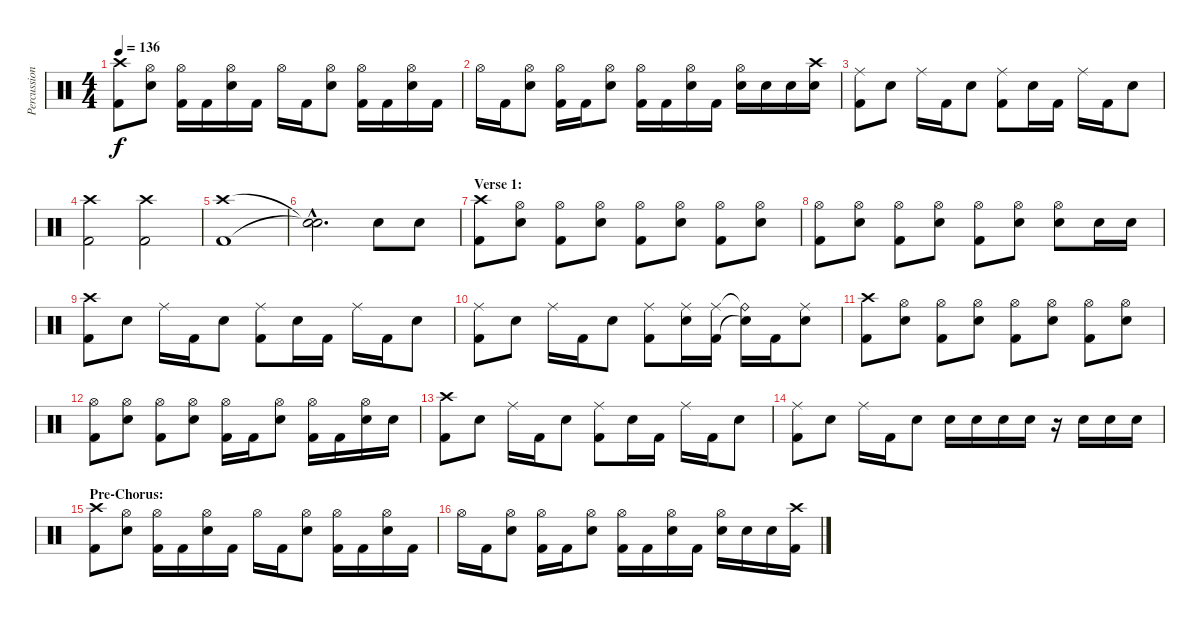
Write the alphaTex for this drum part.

\track ("Percussion" "Percussion") {instrument percussion}
\staff {score}
\articulation defaults
\ts (4 4)
\tempo 136
\clef neutral
\ks c
("Crash high (hit)" "Kick (hit) 2").8{dy f} ("Hi-Hat (open)" "Electric Snare (hit)").8 ("Hi-Hat (open)" "Kick (hit) 2").16 "Kick (hit) 2".16 ("Hi-Hat (open)" "Electric Snare (hit)").16 "Kick (hit) 2".16 "Hi-Hat (open)".16 "Kick (hit) 2".16 ("Hi-Hat (open)" "Electric Snare (hit)").8 ("Hi-Hat (open)" "Kick (hit) 2").16 "Kick (hit) 2".16 ("Hi-Hat (open)" "Electric Snare (hit)").16 "Kick (hit) 2".16 |
"Hi-Hat (open)".16 "Kick (hit) 2".16 ("Hi-Hat (open)" "Electric Snare (hit)").8 ("Hi-Hat (open)" "Kick (hit) 2").16 "Kick (hit) 2".16 ("Hi-Hat (open)" "Electric Snare (hit)").8 ("Hi-Hat (open)" "Kick (hit) 2").16 "Kick (hit) 2".16 ("Hi-Hat (open)" "Electric Snare (hit)").16 "Kick (hit) 2".16 ("Hi-Hat (open)" "Electric Snare (hit)").16 "Electric Snare (hit)".16 "Electric Snare (hit)".16 ("Crash high (hit)" "Electric Snare (hit)").16 |
("Ride (middle)" "Kick (hit) 2").8 "Electric Snare (hit)".8 "Ride (middle)".16 "Kick (hit) 2".16 "Electric Snare (hit)".8 ("Ride (middle)" "Kick (hit) 2").8 "Electric Snare (hit)".16 "Kick (hit) 2".16 "Ride (middle)".16 "Kick (hit) 2".16 "Electric Snare (hit)".8 |
("Crash high (hit)" "Kick (hit) 2").2 ("Crash high (hit)" "Kick (hit) 2").2 |
("Crash high (hit)" "Kick (hit) 2").1 |
("Snare (hit)"{hac t} "Snare (hit)"{hac t}).2{d} "Electric Snare (hit)".8 "Electric Snare (hit)".8 |
\section ("" "Verse 1:")
("Crash high (hit)" "Kick (hit) 2").8 ("Hi-Hat (open)" "Electric Snare (hit)").8 ("Hi-Hat (open)" "Kick (hit) 2").8 ("Hi-Hat (open)" "Electric Snare (hit)").8 ("Hi-Hat (open)" "Kick (hit) 2").8 ("Hi-Hat (open)" "Electric Snare (hit)").8 ("Hi-Hat (open)" "Kick (hit) 2").8 ("Hi-Hat (open)" "Electric Snare (hit)").8 |
("Hi-Hat (open)" "Kick (hit) 2").8 ("Hi-Hat (open)" "Electric Snare (hit)").8 ("Hi-Hat (open)" "Kick (hit) 2").8 ("Hi-Hat (open)" "Electric Snare (hit)").8 ("Hi-Hat (open)" "Kick (hit) 2").8 ("Hi-Hat (open)" "Electric Snare (hit)").8 ("Hi-Hat (open)" "Electric Snare (hit)").8 "Electric Snare (hit)".16 "Electric Snare (hit)".16 |
("Crash high (hit)" "Kick (hit) 2").8 "Electric Snare (hit)".8 "Ride (middle)".16 "Kick (hit) 2".16 "Electric Snare (hit)".8 ("Ride (middle)" "Kick (hit) 2").8 "Electric Snare (hit)".16 "Kick (hit) 2".16 "Ride (middle)".16 "Kick (hit) 2".16 "Electric Snare (hit)".8 |
("Ride (middle)" "Kick (hit) 2").8 "Electric Snare (hit)".8 "Ride (middle)".16 "Kick (hit) 2".16 "Electric Snare (hit)".8 ("Ride (middle)" "Kick (hit) 2").8 ("Ride (middle)" "Electric Snare (hit)").16 ("Ride (middle)" "Kick (hit) 2").16 ("Ride (bell)"{t} "Snare (hit)"{t}).16 "Kick (hit) 2".16 ("Ride (middle)" "Electric Snare (hit)").8 |
("Crash high (hit)" "Kick (hit) 2").8 ("Hi-Hat (open)" "Electric Snare (hit)").8 ("Hi-Hat (open)" "Kick (hit) 2").8 ("Hi-Hat (open)" "Electric Snare (hit)").8 ("Hi-Hat (open)" "Kick (hit) 2").8 ("Hi-Hat (open)" "Electric Snare (hit)").8 ("Hi-Hat (open)" "Kick (hit) 2").8 ("Hi-Hat (open)" "Electric Snare (hit)").8 |
("Hi-Hat (open)" "Kick (hit) 2").8 ("Hi-Hat (open)" "Electric Snare (hit)").8 ("Hi-Hat (open)" "Kick (hit) 2").8 ("Hi-Hat (open)" "Electric Snare (hit)").8 ("Hi-Hat (open)" "Kick (hit) 2").16 "Kick (hit) 2".16 ("Hi-Hat (open)" "Electric Snare (hit)").8 ("Hi-Hat (open)" "Kick (hit) 2").16 "Kick (hit) 2".16 ("Hi-Hat (open)" "Electric Snare (hit)").16 "Electric Snare (hit)".16 |
("Crash high (hit)" "Kick (hit) 2").8 "Electric Snare (hit)".8 "Ride (middle)".16 "Kick (hit) 2".16 "Electric Snare (hit)".8 ("Ride (middle)" "Kick (hit) 2").8 "Electric Snare (hit)".16 "Kick (hit) 2".16 "Ride (middle)".16 "Kick (hit) 2".16 "Electric Snare (hit)".8 |
("Ride (middle)" "Kick (hit) 2").8 "Electric Snare (hit)".8 "Ride (middle)".16 "Kick (hit) 2".16 "Electric Snare (hit)".8 "Electric Snare (hit)".16 "Electric Snare (hit)".16 "Electric Snare (hit)".16 "Electric Snare (hit)".16 r.16 "Electric Snare (hit)".16 "Electric Snare (hit)".16 "Electric Snare (hit)".16 |
\section ("" "Pre-Chorus:")
("Crash high (hit)" "Kick (hit) 2").8 ("Hi-Hat (open)" "Electric Snare (hit)").8 ("Hi-Hat (open)" "Kick (hit) 2").16 "Kick (hit) 2".16 ("Hi-Hat (open)" "Electric Snare (hit)").16 "Kick (hit) 2".16 "Hi-Hat (open)".16 "Kick (hit) 2".16 ("Hi-Hat (open)" "Electric Snare (hit)").8 ("Hi-Hat (open)" "Kick (hit) 2").16 "Kick (hit) 2".16 ("Hi-Hat (open)" "Electric Snare (hit)").16 "Kick (hit) 2".16 |
"Hi-Hat (open)".16 "Kick (hit) 2".16 ("Hi-Hat (open)" "Electric Snare (hit)").8 ("Hi-Hat (open)" "Kick (hit) 2").16 "Kick (hit) 2".16 ("Hi-Hat (open)" "Electric Snare (hit)").8 ("Hi-Hat (open)" "Kick (hit) 2").16 "Kick (hit) 2".16 ("Hi-Hat (open)" "Electric Snare (hit)").16 "Kick (hit) 2".16 ("Hi-Hat (open)" "Electric Snare (hit)").16 "Electric Snare (hit)".16 "Electric Snare (hit)".16 ("Crash high (hit)" "Kick (hit) 2").16
